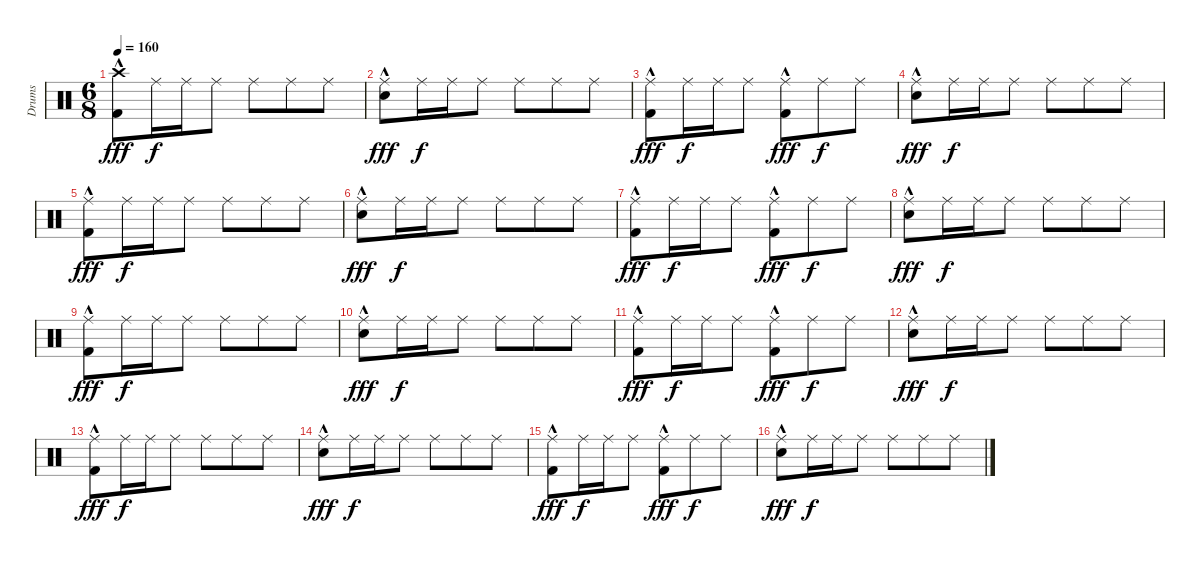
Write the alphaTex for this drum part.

\track ("Drums" "Drums") {instrument percussion}
\staff {score}
\articulation defaults
\ts (6 8)
\tempo 160
\clef neutral
\ks c
("Crash high (hit)" "Kick (hit) 2"{hac}).8{dy fff} "Ride (middle)".16{dy f} "Ride (middle)".16 "Ride (middle)".8 "Ride (middle)".8 "Ride (middle)".8 "Ride (middle)".8 |
("Ride (middle)" "Snare (hit) 2"{hac}).8{dy fff} "Ride (middle)".16{dy f} "Ride (middle)".16 "Ride (middle)".8 "Ride (middle)".8 "Ride (middle)".8 "Ride (middle)".8 |
("Ride (middle)" "Kick (hit) 2"{hac}).8{dy fff} "Ride (middle)".16{dy f} "Ride (middle)".16 "Ride (middle)".8 ("Ride (middle)" "Kick (hit) 2"{hac}).8{dy fff} "Ride (middle)".8{dy f} "Ride (middle)".8 |
("Ride (middle)" "Snare (hit) 2"{hac}).8{dy fff} "Ride (middle)".16{dy f} "Ride (middle)".16 "Ride (middle)".8 "Ride (middle)".8 "Ride (middle)".8 "Ride (middle)".8 |
("Ride (middle)" "Kick (hit) 2"{hac}).8{dy fff} "Ride (middle)".16{dy f} "Ride (middle)".16 "Ride (middle)".8 "Ride (middle)".8 "Ride (middle)".8 "Ride (middle)".8 |
("Ride (middle)" "Snare (hit) 2"{hac}).8{dy fff} "Ride (middle)".16{dy f} "Ride (middle)".16 "Ride (middle)".8 "Ride (middle)".8 "Ride (middle)".8 "Ride (middle)".8 |
("Ride (middle)" "Kick (hit) 2"{hac}).8{dy fff} "Ride (middle)".16{dy f} "Ride (middle)".16 "Ride (middle)".8 ("Ride (middle)" "Kick (hit) 2"{hac}).8{dy fff} "Ride (middle)".8{dy f} "Ride (middle)".8 |
("Ride (middle)" "Snare (hit) 2"{hac}).8{dy fff} "Ride (middle)".16{dy f} "Ride (middle)".16 "Ride (middle)".8 "Ride (middle)".8 "Ride (middle)".8 "Ride (middle)".8 |
("Ride (middle)" "Kick (hit) 2"{hac}).8{dy fff} "Ride (middle)".16{dy f} "Ride (middle)".16 "Ride (middle)".8 "Ride (middle)".8 "Ride (middle)".8 "Ride (middle)".8 |
("Ride (middle)" "Snare (hit) 2"{hac}).8{dy fff} "Ride (middle)".16{dy f} "Ride (middle)".16 "Ride (middle)".8 "Ride (middle)".8 "Ride (middle)".8 "Ride (middle)".8 |
("Ride (middle)" "Kick (hit) 2"{hac}).8{dy fff} "Ride (middle)".16{dy f} "Ride (middle)".16 "Ride (middle)".8 ("Ride (middle)" "Kick (hit) 2"{hac}).8{dy fff} "Ride (middle)".8{dy f} "Ride (middle)".8 |
("Ride (middle)" "Snare (hit) 2"{hac}).8{dy fff} "Ride (middle)".16{dy f} "Ride (middle)".16 "Ride (middle)".8 "Ride (middle)".8 "Ride (middle)".8 "Ride (middle)".8 |
("Ride (middle)" "Kick (hit) 2"{hac}).8{dy fff} "Ride (middle)".16{dy f} "Ride (middle)".16 "Ride (middle)".8 "Ride (middle)".8 "Ride (middle)".8 "Ride (middle)".8 |
("Ride (middle)" "Snare (hit) 2"{hac}).8{dy fff} "Ride (middle)".16{dy f} "Ride (middle)".16 "Ride (middle)".8 "Ride (middle)".8 "Ride (middle)".8 "Ride (middle)".8 |
("Ride (middle)" "Kick (hit) 2"{hac}).8{dy fff} "Ride (middle)".16{dy f} "Ride (middle)".16 "Ride (middle)".8 ("Ride (middle)" "Kick (hit) 2"{hac}).8{dy fff} "Ride (middle)".8{dy f} "Ride (middle)".8 |
("Ride (middle)" "Snare (hit) 2"{hac}).8{dy fff} "Ride (middle)".16{dy f} "Ride (middle)".16 "Ride (middle)".8 "Ride (middle)".8 "Ride (middle)".8 "Ride (middle)".8
